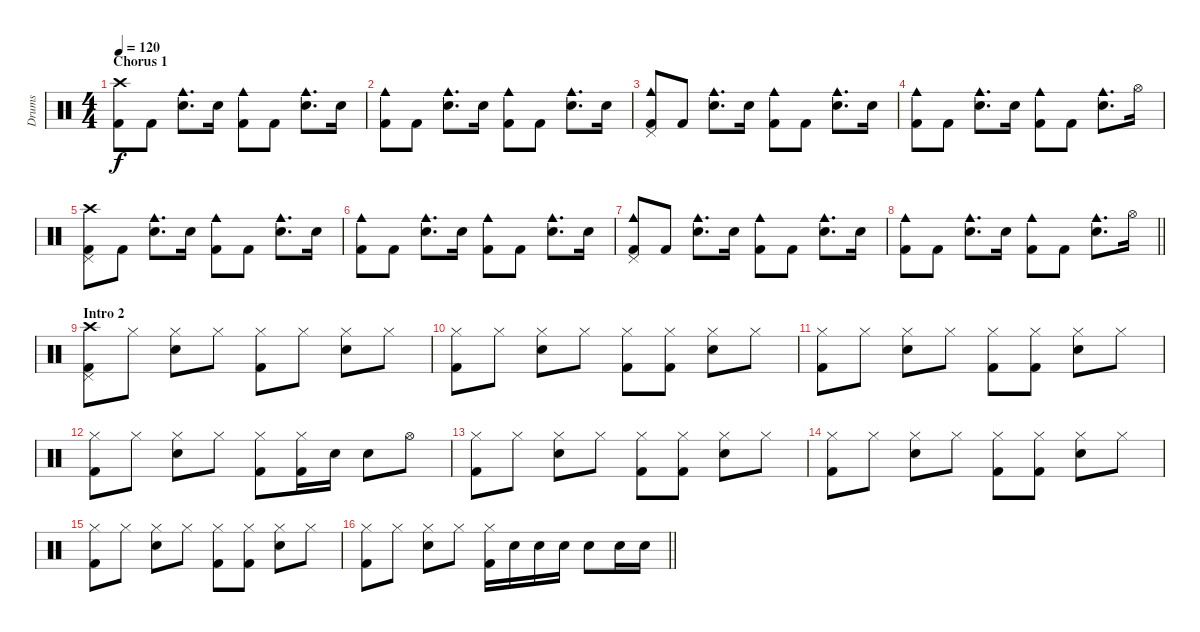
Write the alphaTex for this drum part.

\track ("Drums" "Drums") {instrument percussion}
\staff {score}
\articulation defaults
\ts (4 4)
\section ("" "Chorus 1")
\tempo 120
\clef neutral
\ks c
("Crash high (hit)" "Kick (hit) 2").8{dy f} "Kick (hit) 2".8 ("Cowbell medium (hit)" "Electric Snare (hit)").8{d} "Electric Snare (hit)".16 ("Cowbell medium (hit)" "Kick (hit) 2").8 "Kick (hit) 2".8 ("Cowbell medium (hit)" "Electric Snare (hit)").8{d} "Electric Snare (hit)".16 |
("Cowbell medium (hit)" "Kick (hit) 2").8 "Kick (hit) 2".8 ("Cowbell medium (hit)" "Electric Snare (hit)").8{d} "Electric Snare (hit)".16 ("Cowbell medium (hit)" "Kick (hit) 2").8 "Kick (hit) 2".8 ("Cowbell medium (hit)" "Electric Snare (hit)").8{d} "Electric Snare (hit)".16 |
("Cowbell medium (hit)" "Pedal Hi-Hat (hit)" "Kick (hit) 2").8 "Kick (hit) 2".8 ("Cowbell medium (hit)" "Electric Snare (hit)").8{d} "Electric Snare (hit)".16 ("Cowbell medium (hit)" "Kick (hit) 2").8 "Kick (hit) 2".8 ("Cowbell medium (hit)" "Electric Snare (hit)").8{d} "Electric Snare (hit)".16 |
("Cowbell medium (hit)" "Kick (hit) 2").8 "Kick (hit) 2".8 ("Cowbell medium (hit)" "Electric Snare (hit)").8{d} "Electric Snare (hit)".16 ("Cowbell medium (hit)" "Kick (hit) 2").8 "Kick (hit) 2".8 ("Cowbell medium (hit)" "Electric Snare (hit)").8{d} "Hi-Hat (open)".16 |
("Crash high (hit)" "Pedal Hi-Hat (hit)" "Kick (hit) 2").8 "Kick (hit) 2".8 ("Cowbell medium (hit)" "Electric Snare (hit)").8{d} "Electric Snare (hit)".16 ("Cowbell medium (hit)" "Kick (hit) 2").8 "Kick (hit) 2".8 ("Cowbell medium (hit)" "Electric Snare (hit)").8{d} "Electric Snare (hit)".16 |
("Cowbell medium (hit)" "Kick (hit) 2").8 "Kick (hit) 2".8 ("Cowbell medium (hit)" "Electric Snare (hit)").8{d} "Electric Snare (hit)".16 ("Cowbell medium (hit)" "Kick (hit) 2").8 "Kick (hit) 2".8 ("Cowbell medium (hit)" "Electric Snare (hit)").8{d} "Electric Snare (hit)".16 |
("Cowbell medium (hit)" "Pedal Hi-Hat (hit)" "Kick (hit) 2").8 "Kick (hit) 2".8 ("Cowbell medium (hit)" "Electric Snare (hit)").8{d} "Electric Snare (hit)".16 ("Cowbell medium (hit)" "Kick (hit) 2").8 "Kick (hit) 2".8 ("Cowbell medium (hit)" "Electric Snare (hit)").8{d} "Electric Snare (hit)".16 |
\barLineRight lightlight
("Cowbell medium (hit)" "Kick (hit) 2").8 "Kick (hit) 2".8 ("Cowbell medium (hit)" "Electric Snare (hit)").8{d} "Electric Snare (hit)".16 ("Cowbell medium (hit)" "Kick (hit) 2").8 "Kick (hit) 2".8 ("Cowbell medium (hit)" "Electric Snare (hit)").8{d} "Hi-Hat (open)".16 |
\section ("" "Intro 2")
("Crash high (hit)" "Pedal Hi-Hat (hit)" "Kick (hit) 2").8 "Hi-Hat (closed)".8 ("Hi-Hat (closed)" "Electric Snare (hit)").8 "Hi-Hat (closed)".8 ("Hi-Hat (closed)" "Kick (hit) 2").8 "Hi-Hat (closed)".8 ("Hi-Hat (closed)" "Electric Snare (hit)").8 "Hi-Hat (closed)".8 |
("Hi-Hat (closed)" "Kick (hit) 2").8 "Hi-Hat (closed)".8 ("Hi-Hat (closed)" "Electric Snare (hit)").8 "Hi-Hat (closed)".8 ("Hi-Hat (closed)" "Kick (hit) 2").8 ("Hi-Hat (closed)" "Kick (hit) 2").8 ("Hi-Hat (closed)" "Electric Snare (hit)").8 "Hi-Hat (closed)".8 |
("Hi-Hat (closed)" "Kick (hit) 2").8 "Hi-Hat (closed)".8 ("Hi-Hat (closed)" "Electric Snare (hit)").8 "Hi-Hat (closed)".8 ("Hi-Hat (closed)" "Kick (hit) 2").8 ("Hi-Hat (closed)" "Kick (hit) 2").8 ("Hi-Hat (closed)" "Electric Snare (hit)").8 "Hi-Hat (closed)".8 |
("Hi-Hat (closed)" "Kick (hit) 2").8 "Hi-Hat (closed)".8 ("Hi-Hat (closed)" "Electric Snare (hit)").8 "Hi-Hat (closed)".8 ("Hi-Hat (closed)" "Kick (hit) 2").8 ("Hi-Hat (closed)" "Kick (hit) 2").16 "Electric Snare (hit)".16 "Electric Snare (hit)".8 "Hi-Hat (open)".8 |
("Hi-Hat (closed)" "Kick (hit) 2").8 "Hi-Hat (closed)".8 ("Hi-Hat (closed)" "Electric Snare (hit)").8 "Hi-Hat (closed)".8 ("Hi-Hat (closed)" "Kick (hit) 2").8 ("Hi-Hat (closed)" "Kick (hit) 2").8 ("Hi-Hat (closed)" "Electric Snare (hit)").8 "Hi-Hat (closed)".8 |
("Hi-Hat (closed)" "Kick (hit) 2").8 "Hi-Hat (closed)".8 ("Hi-Hat (closed)" "Electric Snare (hit)").8 "Hi-Hat (closed)".8 ("Hi-Hat (closed)" "Kick (hit) 2").8 ("Hi-Hat (closed)" "Kick (hit) 2").8 ("Hi-Hat (closed)" "Electric Snare (hit)").8 "Hi-Hat (closed)".8 |
("Hi-Hat (closed)" "Kick (hit) 2").8 "Hi-Hat (closed)".8 ("Hi-Hat (closed)" "Electric Snare (hit)").8 "Hi-Hat (closed)".8 ("Hi-Hat (closed)" "Kick (hit) 2").8 ("Hi-Hat (closed)" "Kick (hit) 2").8 ("Hi-Hat (closed)" "Electric Snare (hit)").8 "Hi-Hat (closed)".8 |
\barLineRight lightlight
("Hi-Hat (closed)" "Kick (hit) 2").8 "Hi-Hat (closed)".8 ("Hi-Hat (closed)" "Electric Snare (hit)").8 "Hi-Hat (closed)".8 ("Hi-Hat (closed)" "Kick (hit) 2").16 "Electric Snare (hit)".16 "Electric Snare (hit)".16 "Electric Snare (hit)".16 "Electric Snare (hit)".8 "Electric Snare (hit)".16 "Electric Snare (hit)".16
